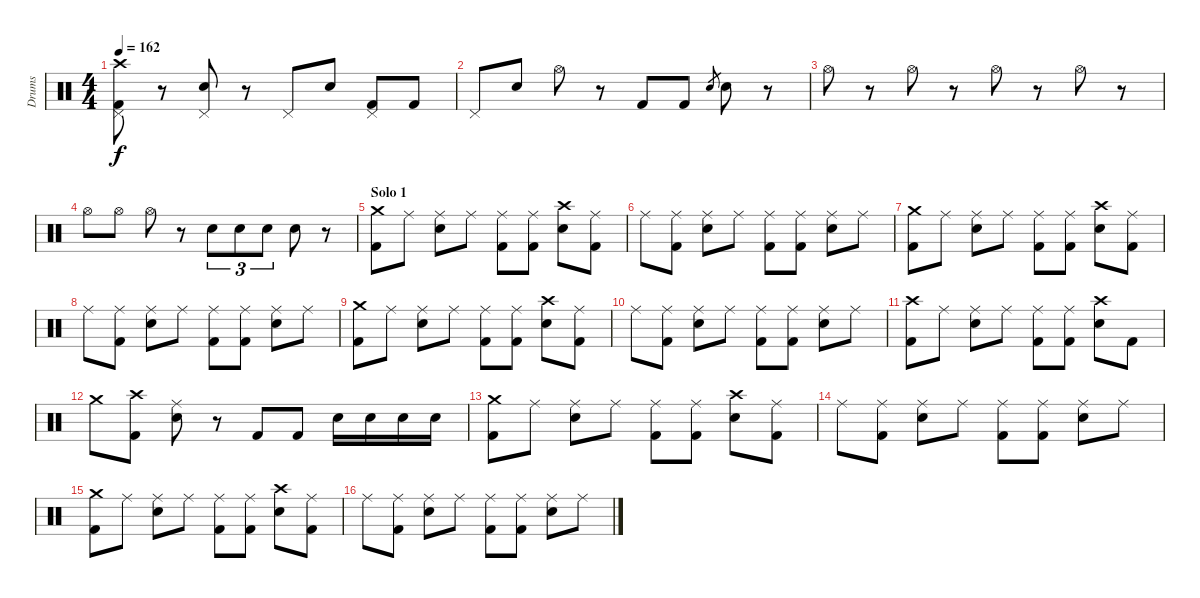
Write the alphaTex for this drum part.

\track ("Drums" "Drums") {instrument percussion}
\staff {score}
\articulation defaults
\ts (4 4)
\tempo 162
\clef neutral
\ks c
("Crash high (hit)" "Pedal Hi-Hat (hit)" "Kick (hit) 2").8{dy f} r.8 ("Pedal Hi-Hat (hit)" "Electric Snare (hit)").8 r.8 "Pedal Hi-Hat (hit)".8 "Electric Snare (hit)".8 ("Pedal Hi-Hat (hit)" "Kick (hit) 2").8 "Kick (hit) 2".8 |
"Pedal Hi-Hat (hit)".8 "Electric Snare (hit)".8 "Hi-Hat (open)".8 r.8 "Kick (hit) 2".8 "Kick (hit) 2".8 "Electric Snare (hit)".8{gr} "Electric Snare (hit)".8 r.8 |
"Hi-Hat (open)".8 r.8 "Hi-Hat (open)".8 r.8 "Hi-Hat (open)".8 r.8 "Hi-Hat (open)".8 r.8 |
"Hi-Hat (open)".8 "Hi-Hat (open)".8 "Hi-Hat (open)".8 r.8 "Electric Snare (hit)".8{tu (3 2)} "Electric Snare (hit)".8{tu (3 2)} "Electric Snare (hit)".8{tu (3 2)} "Electric Snare (hit)".8 r.8 |
\section ("" "Solo 1")
("Crash medium (hit)" "Kick (hit) 2").8 "Ride (middle)".8 ("Ride (middle)" "Electric Snare (hit)").8 "Ride (middle)".8 ("Ride (middle)" "Kick (hit) 2").8 ("Ride (middle)" "Kick (hit) 2").8 ("Crash high (hit)" "Electric Snare (hit)").8 ("Ride (middle)" "Kick (hit) 2").8 |
"Ride (middle)".8 ("Ride (middle)" "Kick (hit) 2").8 ("Ride (middle)" "Electric Snare (hit)").8 "Ride (middle)".8 ("Ride (middle)" "Kick (hit) 2").8 ("Ride (middle)" "Kick (hit) 2").8 ("Ride (middle)" "Electric Snare (hit)").8 "Ride (middle)".8 |
("Crash medium (hit)" "Kick (hit) 2").8 "Ride (middle)".8 ("Ride (middle)" "Electric Snare (hit)").8 "Ride (middle)".8 ("Ride (middle)" "Kick (hit) 2").8 ("Ride (middle)" "Kick (hit) 2").8 ("Crash high (hit)" "Electric Snare (hit)").8 ("Ride (middle)" "Kick (hit) 2").8 |
"Ride (middle)".8 ("Ride (middle)" "Kick (hit) 2").8 ("Ride (middle)" "Electric Snare (hit)").8 "Ride (middle)".8 ("Ride (middle)" "Kick (hit) 2").8 ("Ride (middle)" "Kick (hit) 2").8 ("Ride (middle)" "Electric Snare (hit)").8 "Ride (middle)".8 |
("Crash medium (hit)" "Kick (hit) 2").8 "Ride (middle)".8 ("Ride (middle)" "Electric Snare (hit)").8 "Ride (middle)".8 ("Ride (middle)" "Kick (hit) 2").8 ("Ride (middle)" "Kick (hit) 2").8 ("Crash high (hit)" "Electric Snare (hit)").8 ("Ride (middle)" "Kick (hit) 2").8 |
"Ride (middle)".8 ("Ride (middle)" "Kick (hit) 2").8 ("Ride (middle)" "Electric Snare (hit)").8 "Ride (middle)".8 ("Ride (middle)" "Kick (hit) 2").8 ("Ride (middle)" "Kick (hit) 2").8 ("Ride (middle)" "Electric Snare (hit)").8 "Ride (middle)".8 |
("Crash high (hit)" "Kick (hit) 2").8 "Ride (middle)".8 ("Ride (middle)" "Electric Snare (hit)").8 "Ride (middle)".8 ("Ride (middle)" "Kick (hit) 2").8 ("Ride (middle)" "Kick (hit) 2").8 ("Crash high (hit)" "Electric Snare (hit)").8 "Kick (hit) 2".8 |
"Crash medium (hit)".8 ("Crash high (hit)" "Kick (hit) 2").8 ("Ride (middle)" "Electric Snare (hit)").8 r.8 "Kick (hit) 2".8 "Kick (hit) 2".8 "Electric Snare (hit)".16 "Electric Snare (hit)".16 "Electric Snare (hit)".16 "Electric Snare (hit)".16 |
("Crash medium (hit)" "Kick (hit) 2").8 "Ride (middle)".8 ("Ride (middle)" "Electric Snare (hit)").8 "Ride (middle)".8 ("Ride (middle)" "Kick (hit) 2").8 ("Ride (middle)" "Kick (hit) 2").8 ("Crash high (hit)" "Electric Snare (hit)").8 ("Ride (middle)" "Kick (hit) 2").8 |
"Ride (middle)".8 ("Ride (middle)" "Kick (hit) 2").8 ("Ride (middle)" "Electric Snare (hit)").8 "Ride (middle)".8 ("Ride (middle)" "Kick (hit) 2").8 ("Ride (middle)" "Kick (hit) 2").8 ("Ride (middle)" "Electric Snare (hit)").8 "Ride (middle)".8 |
("Crash medium (hit)" "Kick (hit) 2").8 "Ride (middle)".8 ("Ride (middle)" "Electric Snare (hit)").8 "Ride (middle)".8 ("Ride (middle)" "Kick (hit) 2").8 ("Ride (middle)" "Kick (hit) 2").8 ("Crash high (hit)" "Electric Snare (hit)").8 ("Ride (middle)" "Kick (hit) 2").8 |
"Ride (middle)".8 ("Ride (middle)" "Kick (hit) 2").8 ("Ride (middle)" "Electric Snare (hit)").8 "Ride (middle)".8 ("Ride (middle)" "Kick (hit) 2").8 ("Ride (middle)" "Kick (hit) 2").8 ("Ride (middle)" "Electric Snare (hit)").8 "Ride (middle)".8
